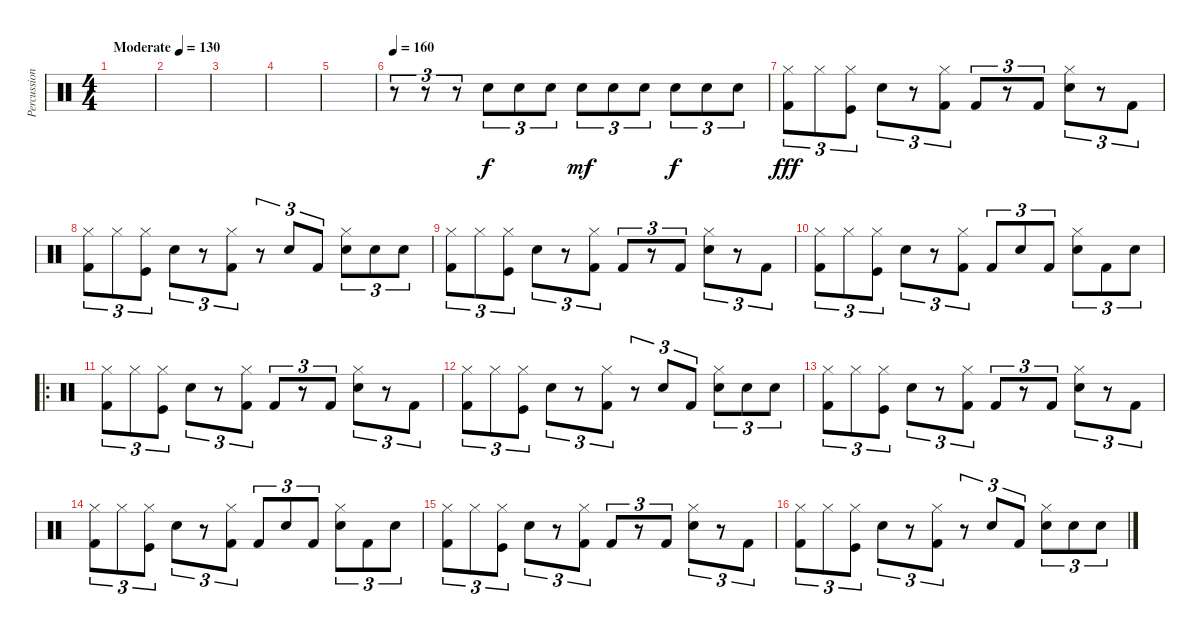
\track ("Percussions" "Percussion") {instrument percussion}
\staff {score}
\articulation defaults
\ts (4 4)
\tempo (130 "Moderate")
\clef neutral
\ks c
|
|
|
|
|
\tempo 160
r.8{tu (3 2)} r.8{tu (3 2)} r.8{tu (3 2)} "Electric Snare (hit)".8{tu (3 2)} "Electric Snare (hit)".8{tu (3 2)} "Electric Snare (hit)".8{tu (3 2)} "Electric Snare (hit)".8{tu (3 2) dy mf} "Electric Snare (hit)".8{tu (3 2)} "Electric Snare (hit)".8{tu (3 2)} "Electric Snare (hit)".8{tu (3 2) dy f} "Electric Snare (hit)".8{tu (3 2)} "Electric Snare (hit)".8{tu (3 2)} |
("Hi-Hat (closed)" "Kick (hit) 2").8{tu (3 2) dy fff} "Hi-Hat (closed)".8{tu (3 2)} ("Hi-Hat (closed)" "Kick (hit)").8{tu (3 2)} "Electric Snare (hit)".8{tu (3 2)} r.8{tu (3 2)} ("Hi-Hat (closed)" "Kick (hit) 2").8{tu (3 2)} "Kick (hit) 2".8{tu (3 2)} r.8{tu (3 2)} "Kick (hit) 2".8{tu (3 2)} ("Hi-Hat (closed)" "Electric Snare (hit)").8{tu (3 2)} r.8{tu (3 2)} "Kick (hit) 2".8{tu (3 2)} |
("Hi-Hat (closed)" "Kick (hit) 2").8{tu (3 2)} "Hi-Hat (closed)".8{tu (3 2)} ("Hi-Hat (closed)" "Kick (hit)").8{tu (3 2)} "Electric Snare (hit)".8{tu (3 2)} r.8{tu (3 2)} ("Hi-Hat (closed)" "Kick (hit) 2").8{tu (3 2)} r.8{tu (3 2)} "Electric Snare (hit)".8{tu (3 2)} "Kick (hit) 2".8{tu (3 2)} ("Hi-Hat (closed)" "Electric Snare (hit)").8{tu (3 2)} "Electric Snare (hit)".8{tu (3 2)} "Electric Snare (hit)".8{tu (3 2)} |
("Hi-Hat (closed)" "Kick (hit) 2").8{tu (3 2)} "Hi-Hat (closed)".8{tu (3 2)} ("Hi-Hat (closed)" "Kick (hit)").8{tu (3 2)} "Electric Snare (hit)".8{tu (3 2)} r.8{tu (3 2)} ("Hi-Hat (closed)" "Kick (hit) 2").8{tu (3 2)} "Kick (hit) 2".8{tu (3 2)} r.8{tu (3 2)} "Kick (hit) 2".8{tu (3 2)} ("Hi-Hat (closed)" "Electric Snare (hit)").8{tu (3 2)} r.8{tu (3 2)} "Kick (hit) 2".8{tu (3 2)} |
("Hi-Hat (closed)" "Kick (hit) 2").8{tu (3 2)} "Hi-Hat (closed)".8{tu (3 2)} ("Hi-Hat (closed)" "Kick (hit)").8{tu (3 2)} "Electric Snare (hit)".8{tu (3 2)} r.8{tu (3 2)} ("Hi-Hat (closed)" "Kick (hit) 2").8{tu (3 2)} "Kick (hit) 2".8{tu (3 2)} "Electric Snare (hit)".8{tu (3 2)} "Kick (hit) 2".8{tu (3 2)} ("Hi-Hat (closed)" "Electric Snare (hit)").8{tu (3 2)} "Kick (hit) 2".8{tu (3 2)} "Electric Snare (hit)".8{tu (3 2)} |
\ro
("Hi-Hat (closed)" "Kick (hit) 2").8{tu (3 2)} "Hi-Hat (closed)".8{tu (3 2)} ("Hi-Hat (closed)" "Kick (hit)").8{tu (3 2)} "Electric Snare (hit)".8{tu (3 2)} r.8{tu (3 2)} ("Hi-Hat (closed)" "Kick (hit) 2").8{tu (3 2)} "Kick (hit) 2".8{tu (3 2)} r.8{tu (3 2)} "Kick (hit) 2".8{tu (3 2)} ("Hi-Hat (closed)" "Electric Snare (hit)").8{tu (3 2)} r.8{tu (3 2)} "Kick (hit) 2".8{tu (3 2)} |
("Hi-Hat (closed)" "Kick (hit) 2").8{tu (3 2)} "Hi-Hat (closed)".8{tu (3 2)} ("Hi-Hat (closed)" "Kick (hit)").8{tu (3 2)} "Electric Snare (hit)".8{tu (3 2)} r.8{tu (3 2)} ("Hi-Hat (closed)" "Kick (hit) 2").8{tu (3 2)} r.8{tu (3 2)} "Electric Snare (hit)".8{tu (3 2)} "Kick (hit) 2".8{tu (3 2)} ("Hi-Hat (closed)" "Electric Snare (hit)").8{tu (3 2)} "Electric Snare (hit)".8{tu (3 2)} "Electric Snare (hit)".8{tu (3 2)} |
("Hi-Hat (closed)" "Kick (hit) 2").8{tu (3 2)} "Hi-Hat (closed)".8{tu (3 2)} ("Hi-Hat (closed)" "Kick (hit)").8{tu (3 2)} "Electric Snare (hit)".8{tu (3 2)} r.8{tu (3 2)} ("Hi-Hat (closed)" "Kick (hit) 2").8{tu (3 2)} "Kick (hit) 2".8{tu (3 2)} r.8{tu (3 2)} "Kick (hit) 2".8{tu (3 2)} ("Hi-Hat (closed)" "Electric Snare (hit)").8{tu (3 2)} r.8{tu (3 2)} "Kick (hit) 2".8{tu (3 2)} |
("Hi-Hat (closed)" "Kick (hit) 2").8{tu (3 2)} "Hi-Hat (closed)".8{tu (3 2)} ("Hi-Hat (closed)" "Kick (hit)").8{tu (3 2)} "Electric Snare (hit)".8{tu (3 2)} r.8{tu (3 2)} ("Hi-Hat (closed)" "Kick (hit) 2").8{tu (3 2)} "Kick (hit) 2".8{tu (3 2)} "Electric Snare (hit)".8{tu (3 2)} "Kick (hit) 2".8{tu (3 2)} ("Hi-Hat (closed)" "Electric Snare (hit)").8{tu (3 2)} "Kick (hit) 2".8{tu (3 2)} "Electric Snare (hit)".8{tu (3 2)} |
("Hi-Hat (closed)" "Kick (hit) 2").8{tu (3 2)} "Hi-Hat (closed)".8{tu (3 2)} ("Hi-Hat (closed)" "Kick (hit)").8{tu (3 2)} "Electric Snare (hit)".8{tu (3 2)} r.8{tu (3 2)} ("Hi-Hat (closed)" "Kick (hit) 2").8{tu (3 2)} "Kick (hit) 2".8{tu (3 2)} r.8{tu (3 2)} "Kick (hit) 2".8{tu (3 2)} ("Hi-Hat (closed)" "Electric Snare (hit)").8{tu (3 2)} r.8{tu (3 2)} "Kick (hit) 2".8{tu (3 2)} |
("Hi-Hat (closed)" "Kick (hit) 2").8{tu (3 2)} "Hi-Hat (closed)".8{tu (3 2)} ("Hi-Hat (closed)" "Kick (hit)").8{tu (3 2)} "Electric Snare (hit)".8{tu (3 2)} r.8{tu (3 2)} ("Hi-Hat (closed)" "Kick (hit) 2").8{tu (3 2)} r.8{tu (3 2)} "Electric Snare (hit)".8{tu (3 2)} "Kick (hit) 2".8{tu (3 2)} ("Hi-Hat (closed)" "Electric Snare (hit)").8{tu (3 2)} "Electric Snare (hit)".8{tu (3 2)} "Electric Snare (hit)".8{tu (3 2)}
